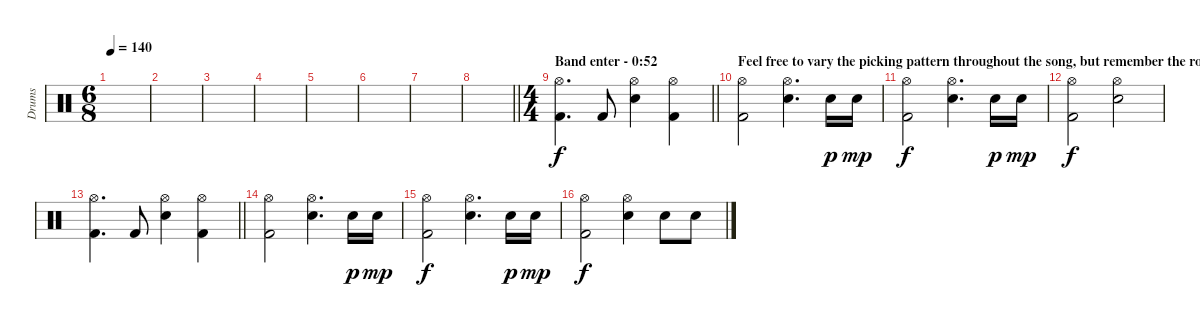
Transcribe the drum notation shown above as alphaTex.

\track ("Drums" "Drums") {instrument percussion}
\staff {score}
\articulation defaults
\ts (6 8)
\tempo 140
\clef neutral
\ks c
|
|
|
|
|
|
|
\barLineRight lightlight
|
\ts (4 4)
\section ("" "Band enter - 0:52")
\barLineRight lightlight
("Hi-Hat (open)" "Kick (hit) 2").4{d} "Kick (hit) 2".8 ("Hi-Hat (open)" "Electric Snare (hit)").4 ("Hi-Hat (open)" "Kick (hit) 2").4 |
\section ("" "Feel free to vary the picking pattern throughout the song, but remember the root note changes.")
("Hi-Hat (open)" "Kick (hit) 2").2 ("Hi-Hat (open)" "Electric Snare (hit)").4{d} "Electric Snare (hit)".16{dy p} "Electric Snare (hit)".16{dy mp} |
("Hi-Hat (open)" "Kick (hit) 2").2{dy f} ("Hi-Hat (open)" "Electric Snare (hit)").4{d} "Electric Snare (hit)".16{dy p} "Electric Snare (hit)".16{dy mp} |
("Hi-Hat (open)" "Kick (hit) 2").2{dy f} ("Hi-Hat (open)" "Electric Snare (hit)").2 |
\barLineRight lightlight
("Hi-Hat (open)" "Kick (hit) 2").4{d} "Kick (hit) 2".8 ("Hi-Hat (open)" "Electric Snare (hit)").4 ("Hi-Hat (open)" "Kick (hit) 2").4 |
("Hi-Hat (open)" "Kick (hit) 2").2 ("Hi-Hat (open)" "Electric Snare (hit)").4{d} "Electric Snare (hit)".16{dy p} "Electric Snare (hit)".16{dy mp} |
("Hi-Hat (open)" "Kick (hit) 2").2{dy f} ("Hi-Hat (open)" "Electric Snare (hit)").4{d} "Electric Snare (hit)".16{dy p} "Electric Snare (hit)".16{dy mp} |
("Hi-Hat (open)" "Kick (hit) 2").2{dy f} ("Hi-Hat (open)" "Electric Snare (hit)").4 "Electric Snare (hit)".8 "Electric Snare (hit)".8
